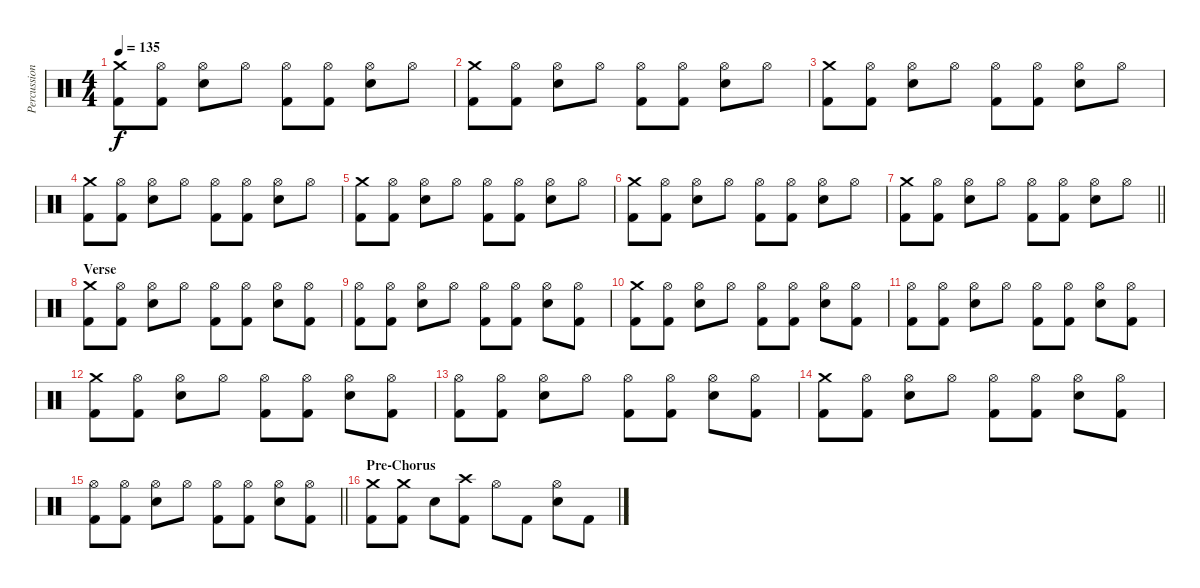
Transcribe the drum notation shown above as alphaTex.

\track ("Percussion" "Percussion") {instrument percussion}
\staff {score}
\articulation defaults
\ts (4 4)
\tempo 135
\clef neutral
\ks c
("Crash medium (hit)" "Kick (hit) 2").8{dy f} ("Hi-Hat (open)" "Kick (hit) 2").8 ("Hi-Hat (open)" "Electric Snare (hit)").8 "Hi-Hat (open)".8 ("Hi-Hat (open)" "Kick (hit) 2").8 ("Hi-Hat (open)" "Kick (hit) 2").8 ("Hi-Hat (open)" "Electric Snare (hit)").8 "Hi-Hat (open)".8 |
("Crash medium (hit)" "Kick (hit) 2").8 ("Hi-Hat (open)" "Kick (hit) 2").8 ("Hi-Hat (open)" "Electric Snare (hit)").8 "Hi-Hat (open)".8 ("Hi-Hat (open)" "Kick (hit) 2").8 ("Hi-Hat (open)" "Kick (hit) 2").8 ("Hi-Hat (open)" "Electric Snare (hit)").8 "Hi-Hat (open)".8 |
("Crash medium (hit)" "Kick (hit) 2").8 ("Hi-Hat (open)" "Kick (hit) 2").8 ("Hi-Hat (open)" "Electric Snare (hit)").8 "Hi-Hat (open)".8 ("Hi-Hat (open)" "Kick (hit) 2").8 ("Hi-Hat (open)" "Kick (hit) 2").8 ("Hi-Hat (open)" "Electric Snare (hit)").8 "Hi-Hat (open)".8 |
("Crash medium (hit)" "Kick (hit) 2").8 ("Hi-Hat (open)" "Kick (hit) 2").8 ("Hi-Hat (open)" "Electric Snare (hit)").8 "Hi-Hat (open)".8 ("Hi-Hat (open)" "Kick (hit) 2").8 ("Hi-Hat (open)" "Kick (hit) 2").8 ("Hi-Hat (open)" "Electric Snare (hit)").8 "Hi-Hat (open)".8 |
("Crash medium (hit)" "Kick (hit) 2").8 ("Hi-Hat (open)" "Kick (hit) 2").8 ("Hi-Hat (open)" "Electric Snare (hit)").8 "Hi-Hat (open)".8 ("Hi-Hat (open)" "Kick (hit) 2").8 ("Hi-Hat (open)" "Kick (hit) 2").8 ("Hi-Hat (open)" "Electric Snare (hit)").8 "Hi-Hat (open)".8 |
("Crash medium (hit)" "Kick (hit) 2").8 ("Hi-Hat (open)" "Kick (hit) 2").8 ("Hi-Hat (open)" "Electric Snare (hit)").8 "Hi-Hat (open)".8 ("Hi-Hat (open)" "Kick (hit) 2").8 ("Hi-Hat (open)" "Kick (hit) 2").8 ("Hi-Hat (open)" "Electric Snare (hit)").8 "Hi-Hat (open)".8 |
\barLineRight lightlight
("Crash medium (hit)" "Kick (hit) 2").8 ("Hi-Hat (open)" "Kick (hit) 2").8 ("Hi-Hat (open)" "Electric Snare (hit)").8 "Hi-Hat (open)".8 ("Hi-Hat (open)" "Kick (hit) 2").8 ("Hi-Hat (open)" "Kick (hit) 2").8 ("Hi-Hat (open)" "Electric Snare (hit)").8 "Hi-Hat (open)".8 |
\section ("" "Verse")
("Crash medium (hit)" "Kick (hit) 2").8 ("Hi-Hat (open)" "Kick (hit) 2").8 ("Hi-Hat (open)" "Electric Snare (hit)").8 "Hi-Hat (open)".8 ("Hi-Hat (open)" "Kick (hit) 2").8 ("Hi-Hat (open)" "Kick (hit) 2").8 ("Hi-Hat (open)" "Electric Snare (hit)").8 ("Hi-Hat (open)" "Kick (hit) 2").8 |
("Hi-Hat (open)" "Kick (hit) 2").8 ("Hi-Hat (open)" "Kick (hit) 2").8 ("Hi-Hat (open)" "Electric Snare (hit)").8 "Hi-Hat (open)".8 ("Hi-Hat (open)" "Kick (hit) 2").8 ("Hi-Hat (open)" "Kick (hit) 2").8 ("Hi-Hat (open)" "Electric Snare (hit)").8 ("Hi-Hat (open)" "Kick (hit) 2").8 |
("Crash medium (hit)" "Kick (hit) 2").8 ("Hi-Hat (open)" "Kick (hit) 2").8 ("Hi-Hat (open)" "Electric Snare (hit)").8 "Hi-Hat (open)".8 ("Hi-Hat (open)" "Kick (hit) 2").8 ("Hi-Hat (open)" "Kick (hit) 2").8 ("Hi-Hat (open)" "Electric Snare (hit)").8 ("Hi-Hat (open)" "Kick (hit) 2").8 |
("Hi-Hat (open)" "Kick (hit) 2").8 ("Hi-Hat (open)" "Kick (hit) 2").8 ("Hi-Hat (open)" "Electric Snare (hit)").8 "Hi-Hat (open)".8 ("Hi-Hat (open)" "Kick (hit) 2").8 ("Hi-Hat (open)" "Kick (hit) 2").8 ("Hi-Hat (open)" "Electric Snare (hit)").8 ("Hi-Hat (open)" "Kick (hit) 2").8 |
("Crash medium (hit)" "Kick (hit) 2").8 ("Hi-Hat (open)" "Kick (hit) 2").8 ("Hi-Hat (open)" "Electric Snare (hit)").8 "Hi-Hat (open)".8 ("Hi-Hat (open)" "Kick (hit) 2").8 ("Hi-Hat (open)" "Kick (hit) 2").8 ("Hi-Hat (open)" "Electric Snare (hit)").8 ("Hi-Hat (open)" "Kick (hit) 2").8 |
("Hi-Hat (open)" "Kick (hit) 2").8 ("Hi-Hat (open)" "Kick (hit) 2").8 ("Hi-Hat (open)" "Electric Snare (hit)").8 "Hi-Hat (open)".8 ("Hi-Hat (open)" "Kick (hit) 2").8 ("Hi-Hat (open)" "Kick (hit) 2").8 ("Hi-Hat (open)" "Electric Snare (hit)").8 ("Hi-Hat (open)" "Kick (hit) 2").8 |
("Crash medium (hit)" "Kick (hit) 2").8 ("Hi-Hat (open)" "Kick (hit) 2").8 ("Hi-Hat (open)" "Electric Snare (hit)").8 "Hi-Hat (open)".8 ("Hi-Hat (open)" "Kick (hit) 2").8 ("Hi-Hat (open)" "Kick (hit) 2").8 ("Hi-Hat (open)" "Electric Snare (hit)").8 ("Hi-Hat (open)" "Kick (hit) 2").8 |
\barLineRight lightlight
("Hi-Hat (open)" "Kick (hit) 2").8 ("Hi-Hat (open)" "Kick (hit) 2").8 ("Hi-Hat (open)" "Electric Snare (hit)").8 "Hi-Hat (open)".8 ("Hi-Hat (open)" "Kick (hit) 2").8 ("Hi-Hat (open)" "Kick (hit) 2").8 ("Hi-Hat (open)" "Electric Snare (hit)").8 ("Hi-Hat (open)" "Kick (hit) 2").8 |
\section ("" "Pre-Chorus")
("Crash medium (hit)" "Kick (hit) 2").8 ("Crash medium (hit)" "Kick (hit) 2").8 "Electric Snare (hit)".8 ("Crash high (hit)" "Kick (hit) 2").8 "Hi-Hat (open)".8 "Kick (hit) 2".8 ("Hi-Hat (open)" "Electric Snare (hit)").8 "Kick (hit) 2".8
